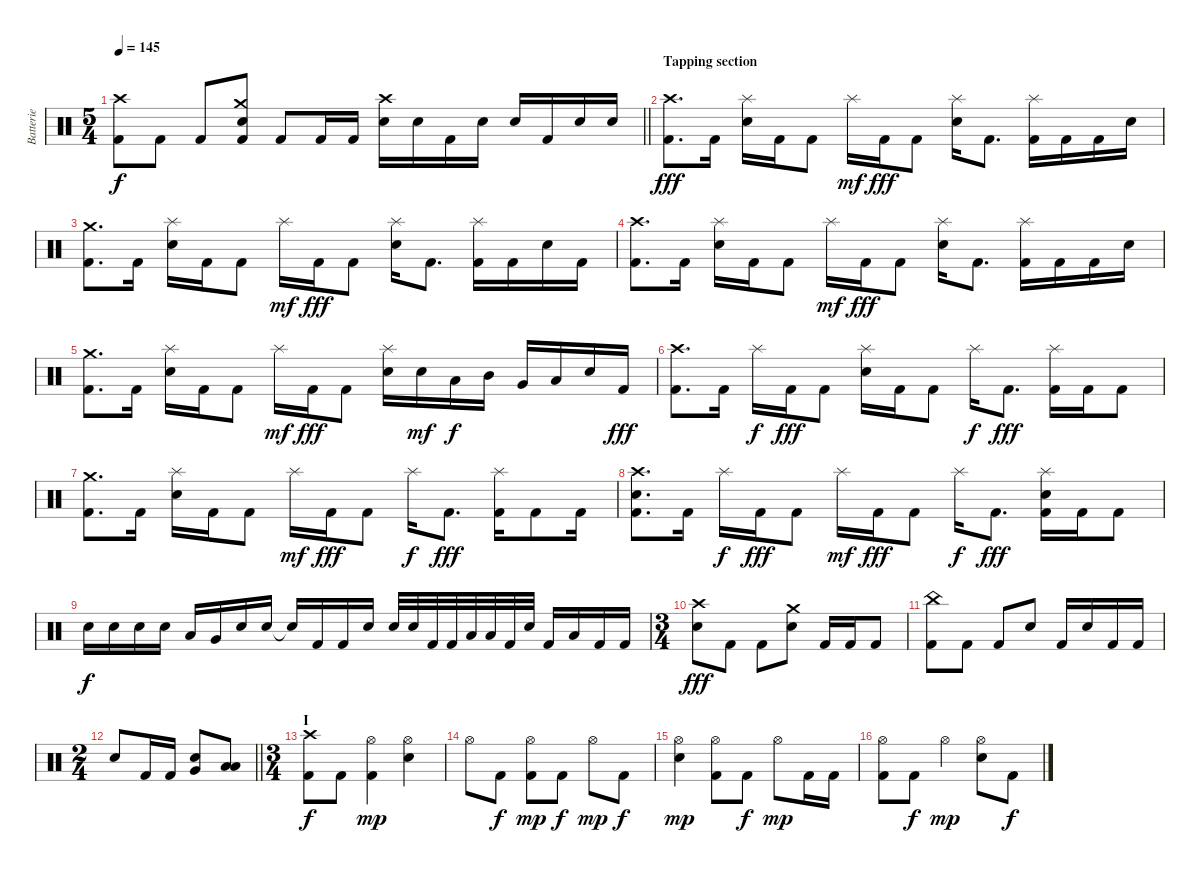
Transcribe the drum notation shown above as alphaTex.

\track ("Batterie" "Batterie") {instrument percussion}
\staff {score}
\articulation defaults
\ts (5 4)
\tempo 145
\clef neutral
\barLineRight lightlight
\ks c
("Crash high (hit)" "Kick (hit) 2").8{dy f} "Kick (hit) 2".8 "Kick (hit) 2".8 ("Crash medium (hit)" "Electric Snare (hit)" "Kick (hit) 2").8 "Kick (hit) 2".8 "Kick (hit) 2".16 "Kick (hit) 2".16 ("Crash high (hit)" "Electric Snare (hit)").16 "Electric Snare (hit)".16 "Kick (hit) 2".16 "Electric Snare (hit)".16 "Electric Snare (hit)".16 "Kick (hit) 2".16 "Electric Snare (hit)".16 "Electric Snare (hit)".16 |
\section ("" "Tapping section")
("Crash high (hit)" "Kick (hit) 2").8{d dy fff} "Kick (hit) 2".16 ("Splash (hit)" "Electric Snare (hit)").16 "Kick (hit) 2".16 "Kick (hit) 2".8 "Splash (hit)".16{dy mf} "Kick (hit) 2".16{dy fff} "Kick (hit) 2".8 ("Splash (hit)" "Electric Snare (hit)").16 "Kick (hit) 2".8{d} ("Splash (hit)" "Kick (hit) 2").16 "Kick (hit) 2".16 "Kick (hit) 2".16 "Electric Snare (hit)".16 |
("Crash medium (hit)" "Kick (hit) 2").8{d} "Kick (hit) 2".16 ("Splash (hit)" "Electric Snare (hit)").16 "Kick (hit) 2".16 "Kick (hit) 2".8 "Splash (hit)".16{dy mf} "Kick (hit) 2".16{dy fff} "Kick (hit) 2".8 ("Splash (hit)" "Electric Snare (hit)").16 "Kick (hit) 2".8{d} ("Splash (hit)" "Kick (hit) 2").16 "Kick (hit) 2".16 "Electric Snare (hit)".16 "Kick (hit) 2".16 |
("Crash high (hit)" "Kick (hit) 2").8{d} "Kick (hit) 2".16 ("Splash (hit)" "Electric Snare (hit)").16 "Kick (hit) 2".16 "Kick (hit) 2".8 "Splash (hit)".16{dy mf} "Kick (hit) 2".16{dy fff} "Kick (hit) 2".8 ("Splash (hit)" "Electric Snare (hit)").16 "Kick (hit) 2".8{d} ("Splash (hit)" "Kick (hit) 2").16 "Kick (hit) 2".16 "Kick (hit) 2".16 "Electric Snare (hit)".16 |
("Crash medium (hit)" "Kick (hit) 2").8{d} "Kick (hit) 2".16 ("Splash (hit)" "Electric Snare (hit)").16 "Kick (hit) 2".16 "Kick (hit) 2".8 "Splash (hit)".16{dy mf} "Kick (hit) 2".16{dy fff} "Kick (hit) 2".8 ("Splash (hit)" "Electric Snare (hit)").16 "Electric Snare (hit)".16{dy mf} "Low Tom (hit)".16{dy f} "Mid Tom (hit)".16 "Very Low Tom (hit)".16 "Low Floor Tom (hit)".16 "Electric Snare (hit)".16 "Kick (hit) 2".16{dy fff} |
("Crash high (hit)" "Kick (hit) 2").8{d} "Kick (hit) 2".16 "Splash (hit)".16{dy f} "Kick (hit) 2".16{dy fff} "Kick (hit) 2".8 ("Splash (hit)" "Electric Snare (hit)").16 "Kick (hit) 2".16 "Kick (hit) 2".8 "Splash (hit)".16{dy f} "Kick (hit) 2".8{d dy fff} ("Splash (hit)" "Kick (hit) 2").16 "Kick (hit) 2".16 "Kick (hit) 2".8 |
("Crash medium (hit)" "Kick (hit) 2").8{d} "Kick (hit) 2".16 ("Splash (hit)" "Electric Snare (hit)").16 "Kick (hit) 2".16 "Kick (hit) 2".8 "Splash (hit)".16{dy mf} "Kick (hit) 2".16{dy fff} "Kick (hit) 2".8 "Splash (hit)".16{dy f} "Kick (hit) 2".8{d dy fff} ("Splash (hit)" "Kick (hit) 2").16 "Kick (hit) 2".8 "Kick (hit) 2".16 |
("Crash high (hit)" "Electric Snare (hit)" "Kick (hit) 2").8{d} "Kick (hit) 2".16 "Splash (hit)".16{dy f} "Kick (hit) 2".16{dy fff} "Kick (hit) 2".8 "Splash (hit)".16{dy mf} "Kick (hit) 2".16{dy fff} "Kick (hit) 2".8 "Splash (hit)".16{dy f} "Kick (hit) 2".8{d dy fff} ("Splash (hit)" "Electric Snare (hit)" "Kick (hit) 2").16 "Kick (hit) 2".16 "Kick (hit) 2".8 |
"Electric Snare (hit)".16{dy f} "Electric Snare (hit)".16 "Electric Snare (hit)".16 "Electric Snare (hit)".16 "Low Tom (hit)".16 "Very Low Tom (hit)".16 "Electric Snare (hit)".16 "Electric Snare (hit)".16 "Snare (hit)"{t}.16 "Kick (hit) 2".16 "Kick (hit) 2".16 "Electric Snare (hit)".16 "Electric Snare (hit)".32 "Electric Snare (hit)".32 "Kick (hit) 2".32 "Kick (hit) 2".32 "Low Tom (hit)".32 "Low Tom (hit)".32 "Kick (hit) 2".32 "Electric Snare (hit)".32 "Kick (hit) 2".16 "Low Tom (hit)".16 "Kick (hit) 2".16 "Kick (hit) 2".16 |
\ts (3 4)
("Crash high (hit)" "Electric Snare (hit)").8{dy fff} "Kick (hit) 2".8 "Kick (hit) 2".8 ("Crash medium (hit)" "Electric Snare (hit)").8 "Kick (hit) 2".16 "Kick (hit) 2".16 "Kick (hit) 2".8 |
("China (hit)" "Kick (hit) 2").8 "Kick (hit) 2".8 "Kick (hit) 2".8 "Electric Snare (hit)".8 "Kick (hit) 2".16 "Electric Snare (hit)".16 "Kick (hit) 2".16 "Kick (hit) 2".16 |
\ts (2 4)
\barLineRight lightlight "Electric Snare (hit)".8 "Kick (hit) 2".16 "Kick (hit) 2".16
("Electric Snare (hit)" "Very Low Tom (hit)").8 ("Low Tom (hit)" "Low Floor Tom (hit)").8 |
\ts (3 4)
\section ("" "I")
("Crash high (hit)" "Kick (hit) 2").8{dy f} "Kick (hit) 2".8 ("Hi-Hat (open)" "Kick (hit) 2").4{dy mp} ("Hi-Hat (open)" "Electric Snare (hit)").4 |
"Hi-Hat (open)".8 "Kick (hit) 2".8{dy f} ("Hi-Hat (open)" "Kick (hit) 2").8{dy mp} "Kick (hit) 2".8{dy f} "Hi-Hat (open)".8{dy mp} "Kick (hit) 2".8{dy f} |
("Hi-Hat (open)" "Electric Snare (hit)").4{dy mp} ("Hi-Hat (open)" "Kick (hit) 2").8 "Kick (hit) 2".8{dy f} "Hi-Hat (open)".8{dy mp} "Kick (hit) 2".16 "Kick (hit) 2".16 |
("Hi-Hat (open)" "Kick (hit) 2").8 "Kick (hit) 2".8{dy f} "Hi-Hat (open)".4{dy mp} ("Hi-Hat (open)" "Electric Snare (hit)").8 "Kick (hit) 2".8{dy f}
